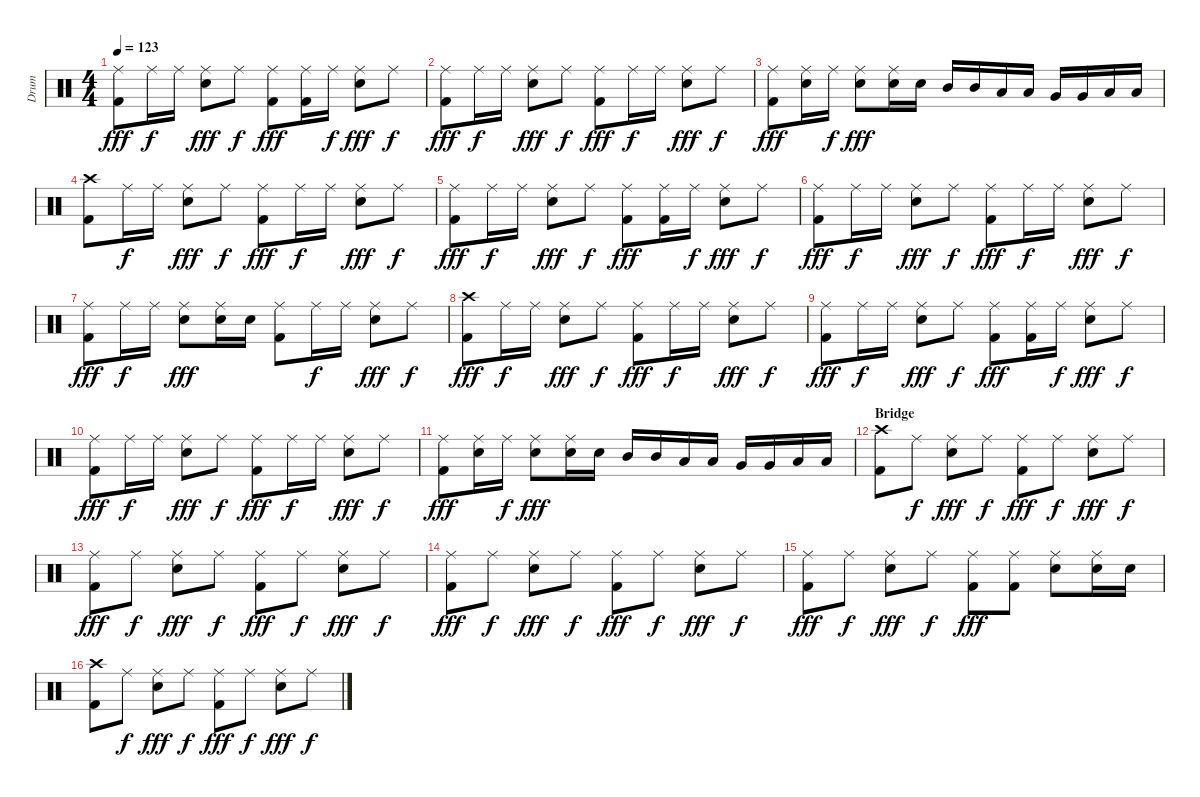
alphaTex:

\track ("Drum" "Drum") {instrument percussion}
\staff {score}
\articulation defaults
\ts (4 4)
\tempo 123
\clef neutral
\ks c
("Ride (middle)" "Kick (hit) 2").8{dy fff} "Ride (middle)".16{dy f} "Ride (middle)".16 ("Ride (middle)" "Electric Snare (hit)").8{dy fff} "Ride (middle)".8{dy f} ("Ride (middle)" "Kick (hit) 2").8{dy fff} ("Ride (middle)" "Kick (hit) 2").16 "Ride (middle)".16{dy f} ("Ride (middle)" "Electric Snare (hit)").8{dy fff} "Ride (middle)".8{dy f} |
("Ride (middle)" "Kick (hit) 2").8{dy fff} "Ride (middle)".16{dy f} "Ride (middle)".16 ("Ride (middle)" "Electric Snare (hit)").8{dy fff} "Ride (middle)".8{dy f} ("Ride (middle)" "Kick (hit) 2").8{dy fff} "Ride (middle)".16{dy f} "Ride (middle)".16 ("Ride (middle)" "Electric Snare (hit)").8{dy fff} "Ride (middle)".8{dy f} |
("Ride (middle)" "Kick (hit) 2").8{dy fff} ("Ride (middle)" "Electric Snare (hit)").16 "Ride (middle)".16{dy f} ("Ride (middle)" "Electric Snare (hit)").8{dy fff} ("Ride (middle)" "Electric Snare (hit)").16 "Electric Snare (hit)".16 "Mid Tom (hit)".16 "Mid Tom (hit)".16 "Low Tom (hit)".16 "Low Tom (hit)".16 "Very Low Tom (hit)".16 "Very Low Tom (hit)".16 "Low Tom (hit)".16 "Low Tom (hit)".16 |
("Crash high (hit)" "Kick (hit) 2").8 "Ride (middle)".16{dy f} "Ride (middle)".16 ("Ride (middle)" "Electric Snare (hit)").8{dy fff} "Ride (middle)".8{dy f} ("Ride (middle)" "Kick (hit) 2").8{dy fff} "Ride (middle)".16{dy f} "Ride (middle)".16 ("Ride (middle)" "Electric Snare (hit)").8{dy fff} "Ride (middle)".8{dy f} |
("Ride (middle)" "Kick (hit) 2").8{dy fff} "Ride (middle)".16{dy f} "Ride (middle)".16 ("Ride (middle)" "Electric Snare (hit)").8{dy fff} "Ride (middle)".8{dy f} ("Ride (middle)" "Kick (hit) 2").8{dy fff} ("Ride (middle)" "Kick (hit) 2").16 "Ride (middle)".16{dy f} ("Ride (middle)" "Electric Snare (hit)").8{dy fff} "Ride (middle)".8{dy f} |
("Ride (middle)" "Kick (hit) 2").8{dy fff} "Ride (middle)".16{dy f} "Ride (middle)".16 ("Ride (middle)" "Electric Snare (hit)").8{dy fff} "Ride (middle)".8{dy f} ("Ride (middle)" "Kick (hit) 2").8{dy fff} "Ride (middle)".16{dy f} "Ride (middle)".16 ("Ride (middle)" "Electric Snare (hit)").8{dy fff} "Ride (middle)".8{dy f} |
("Ride (middle)" "Kick (hit) 2").8{dy fff} "Ride (middle)".16{dy f} "Ride (middle)".16 ("Ride (middle)" "Electric Snare (hit)").8{dy fff} ("Ride (middle)" "Electric Snare (hit)").16 "Electric Snare (hit)".16 ("Ride (middle)" "Kick (hit) 2").8 "Ride (middle)".16{dy f} "Ride (middle)".16 ("Ride (middle)" "Electric Snare (hit)").8{dy fff} "Ride (middle)".8{dy f} |
("Crash high (hit)" "Kick (hit) 2").8{dy fff} "Ride (middle)".16{dy f} "Ride (middle)".16 ("Ride (middle)" "Electric Snare (hit)").8{dy fff} "Ride (middle)".8{dy f} ("Ride (middle)" "Kick (hit) 2").8{dy fff} "Ride (middle)".16{dy f} "Ride (middle)".16 ("Ride (middle)" "Electric Snare (hit)").8{dy fff} "Ride (middle)".8{dy f} |
("Ride (middle)" "Kick (hit) 2").8{dy fff} "Ride (middle)".16{dy f} "Ride (middle)".16 ("Ride (middle)" "Electric Snare (hit)").8{dy fff} "Ride (middle)".8{dy f} ("Ride (middle)" "Kick (hit) 2").8{dy fff} ("Ride (middle)" "Kick (hit) 2").16 "Ride (middle)".16{dy f} ("Ride (middle)" "Electric Snare (hit)").8{dy fff} "Ride (middle)".8{dy f} |
("Ride (middle)" "Kick (hit) 2").8{dy fff} "Ride (middle)".16{dy f} "Ride (middle)".16 ("Ride (middle)" "Electric Snare (hit)").8{dy fff} "Ride (middle)".8{dy f} ("Ride (middle)" "Kick (hit) 2").8{dy fff} "Ride (middle)".16{dy f} "Ride (middle)".16 ("Ride (middle)" "Electric Snare (hit)").8{dy fff} "Ride (middle)".8{dy f} |
("Ride (middle)" "Kick (hit) 2").8{dy fff} ("Ride (middle)" "Electric Snare (hit)").16 "Ride (middle)".16{dy f} ("Ride (middle)" "Electric Snare (hit)").8{dy fff} ("Ride (middle)" "Electric Snare (hit)").16 "Electric Snare (hit)".16 "Mid Tom (hit)".16 "Mid Tom (hit)".16 "Low Tom (hit)".16 "Low Tom (hit)".16 "Very Low Tom (hit)".16 "Very Low Tom (hit)".16 "Low Tom (hit)".16 "Low Tom (hit)".16 |
\section ("" "Bridge")
("Crash high (hit)" "Kick (hit) 2").8 "Ride (middle)".8{dy f} ("Ride (middle)" "Electric Snare (hit)").8{dy fff} "Ride (middle)".8{dy f} ("Ride (middle)" "Kick (hit) 2").8{dy fff} "Ride (middle)".8{dy f} ("Ride (middle)" "Electric Snare (hit)").8{dy fff} "Ride (middle)".8{dy f} |
("Ride (middle)" "Kick (hit) 2").8{dy fff} "Ride (middle)".8{dy f} ("Ride (middle)" "Electric Snare (hit)").8{dy fff} "Ride (middle)".8{dy f} ("Ride (middle)" "Kick (hit) 2").8{dy fff} "Ride (middle)".8{dy f} ("Ride (middle)" "Electric Snare (hit)").8{dy fff} "Ride (middle)".8{dy f} |
("Ride (middle)" "Kick (hit) 2").8{dy fff} "Ride (middle)".8{dy f} ("Ride (middle)" "Electric Snare (hit)").8{dy fff} "Ride (middle)".8{dy f} ("Ride (middle)" "Kick (hit) 2").8{dy fff} "Ride (middle)".8{dy f} ("Ride (middle)" "Electric Snare (hit)").8{dy fff} "Ride (middle)".8{dy f} |
("Ride (middle)" "Kick (hit) 2").8{dy fff} "Ride (middle)".8{dy f} ("Ride (middle)" "Electric Snare (hit)").8{dy fff} "Ride (middle)".8{dy f} ("Ride (middle)" "Kick (hit) 2").8{dy fff} ("Ride (middle)" "Kick (hit) 2").8 ("Ride (middle)" "Electric Snare (hit)").8 ("Ride (middle)" "Electric Snare (hit)").16 "Electric Snare (hit)".16 |
("Crash high (hit)" "Kick (hit) 2").8 "Ride (middle)".8{dy f} ("Ride (middle)" "Electric Snare (hit)").8{dy fff} "Ride (middle)".8{dy f} ("Ride (middle)" "Kick (hit) 2").8{dy fff} "Ride (middle)".8{dy f} ("Ride (middle)" "Electric Snare (hit)").8{dy fff} "Ride (middle)".8{dy f}
